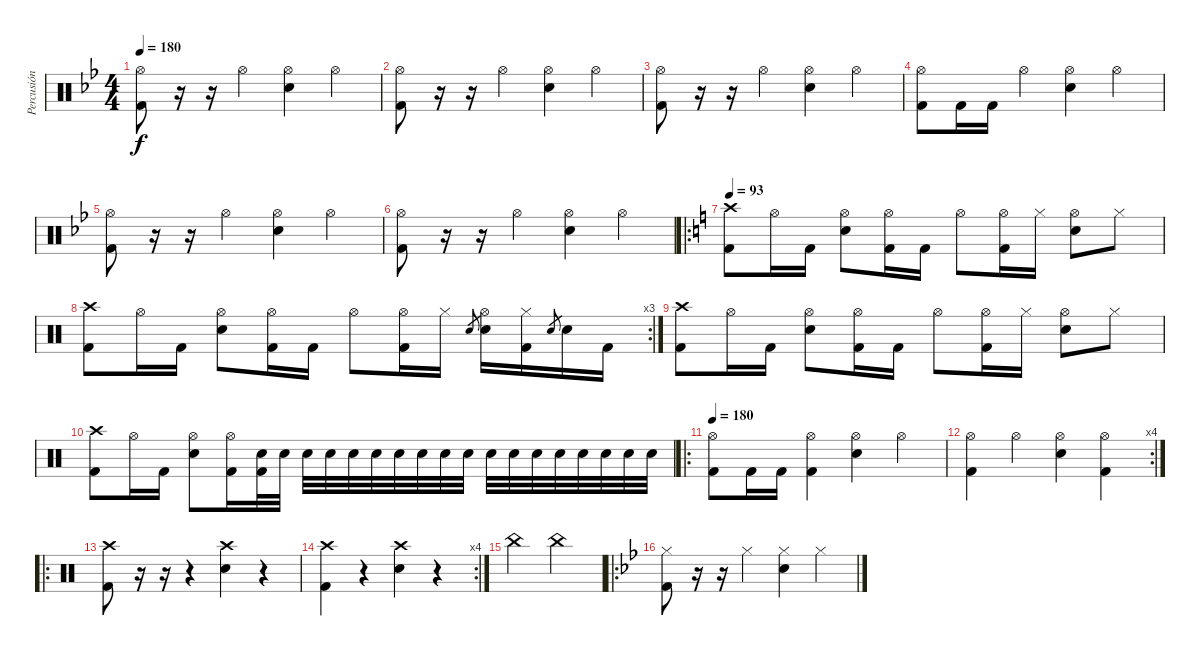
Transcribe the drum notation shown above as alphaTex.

\track ("Percusión" "Percusión") {instrument percussion}
\staff {score}
\articulation defaults
\ts (4 4)
\tempo 180
\clef neutral
\ks bb
("Hi-Hat (open)" "Kick (hit) 2").8{dy f} r.16 r.16 "Hi-Hat (open)".4 ("Hi-Hat (open)" "Electric Snare (hit)").4 "Hi-Hat (open)".4 |
("Hi-Hat (open)" "Kick (hit) 2").8 r.16 r.16 "Hi-Hat (open)".4 ("Hi-Hat (open)" "Electric Snare (hit)").4 "Hi-Hat (open)".4 |
("Hi-Hat (open)" "Kick (hit) 2").8 r.16 r.16 "Hi-Hat (open)".4 ("Hi-Hat (open)" "Electric Snare (hit)").4 "Hi-Hat (open)".4 |
("Hi-Hat (open)" "Kick (hit) 2").8 "Kick (hit) 2".16 "Kick (hit) 2".16 "Hi-Hat (open)".4 ("Hi-Hat (open)" "Electric Snare (hit)").4 "Hi-Hat (open)".4 |
("Hi-Hat (open)" "Kick (hit) 2").8 r.16 r.16 "Hi-Hat (open)".4 ("Hi-Hat (open)" "Electric Snare (hit)").4 "Hi-Hat (open)".4 |
("Hi-Hat (open)" "Kick (hit) 2").8 r.16 r.16 "Hi-Hat (open)".4 ("Hi-Hat (open)" "Electric Snare (hit)").4 "Hi-Hat (open)".4 |
\ro
\tempo 93
\ks c
("Crash high (hit)" "Kick (hit) 2").8 "Hi-Hat (open)".16 "Kick (hit) 2".16 ("Hi-Hat (open)" "Electric Snare (hit)").8 ("Hi-Hat (open)" "Kick (hit) 2").16 "Kick (hit) 2".16 "Hi-Hat (open)".8 ("Hi-Hat (open)" "Kick (hit) 2").16 "Hi-Hat (closed)".16 ("Hi-Hat (open)" "Electric Snare (hit)").8 "Hi-Hat (closed)".8 |
\rc 3
("Crash high (hit)" "Kick (hit) 2").8 "Hi-Hat (open)".16 "Kick (hit) 2".16 ("Hi-Hat (open)" "Electric Snare (hit)").8 ("Hi-Hat (open)" "Kick (hit) 2").16 "Kick (hit) 2".16 "Hi-Hat (open)".8 ("Hi-Hat (open)" "Kick (hit) 2").16 "Hi-Hat (closed)".16 "Electric Snare (hit)".8{gr} ("Hi-Hat (open)" "Electric Snare (hit)").16 ("Hi-Hat (closed)" "Kick (hit) 2").16 "Electric Snare (hit)".8{gr} "Electric Snare (hit)".16 "Kick (hit) 2".16 |
("Crash high (hit)" "Kick (hit) 2").8 "Hi-Hat (open)".16 "Kick (hit) 2".16 ("Hi-Hat (open)" "Electric Snare (hit)").8 ("Hi-Hat (open)" "Kick (hit) 2").16 "Kick (hit) 2".16 "Hi-Hat (open)".8 ("Hi-Hat (open)" "Kick (hit) 2").16 "Hi-Hat (closed)".16 ("Hi-Hat (open)" "Electric Snare (hit)").8 "Hi-Hat (closed)".8 |
("Crash high (hit)" "Kick (hit) 2").8 "Hi-Hat (open)".16 "Kick (hit) 2".16 ("Hi-Hat (open)" "Electric Snare (hit)").8 ("Hi-Hat (open)" "Kick (hit) 2").16 ("Electric Snare (hit)" "Kick (hit) 2").32 "Electric Snare (hit)".32 "Electric Snare (hit)".32 "Electric Snare (hit)".32 "Electric Snare (hit)".32 "Electric Snare (hit)".32 "Electric Snare (hit)".32 "Electric Snare (hit)".32 "Electric Snare (hit)".32 "Electric Snare (hit)".32 "Electric Snare (hit)".32 "Electric Snare (hit)".32 "Electric Snare (hit)".32 "Electric Snare (hit)".32 "Electric Snare (hit)".32 "Electric Snare (hit)".32 "Electric Snare (hit)".32 "Electric Snare (hit)".32 |
\ro
\tempo 180
("Hi-Hat (open)" "Kick (hit) 2").8 "Kick (hit) 2".16 "Kick (hit) 2".16 ("Hi-Hat (open)" "Kick (hit) 2").4 ("Hi-Hat (open)" "Electric Snare (hit)").4 "Hi-Hat (open)".4 |
\rc 4
("Hi-Hat (open)" "Kick (hit) 2").4 "Hi-Hat (open)".4 ("Hi-Hat (open)" "Electric Snare (hit)").4 ("Hi-Hat (open)" "Kick (hit) 2").4 |
\ro
("Crash high (hit)" "Kick (hit) 2").8 r.16 r.16 r.4 ("Crash high (hit)" "Electric Snare (hit)").4 r.4 |
\rc 4
("Crash high (hit)" "Kick (hit) 2").4 r.4 ("Crash high (hit)" "Electric Snare (hit)").4 r.4 |
"China (hit)".2 "China (hit)".2 |
\ro
\ks bb
("Hi-Hat (closed)" "Kick (hit) 2").8 r.16 r.16 "Hi-Hat (closed)".4 ("Hi-Hat (closed)" "Electric Snare (hit)").4 "Hi-Hat (closed)".4
